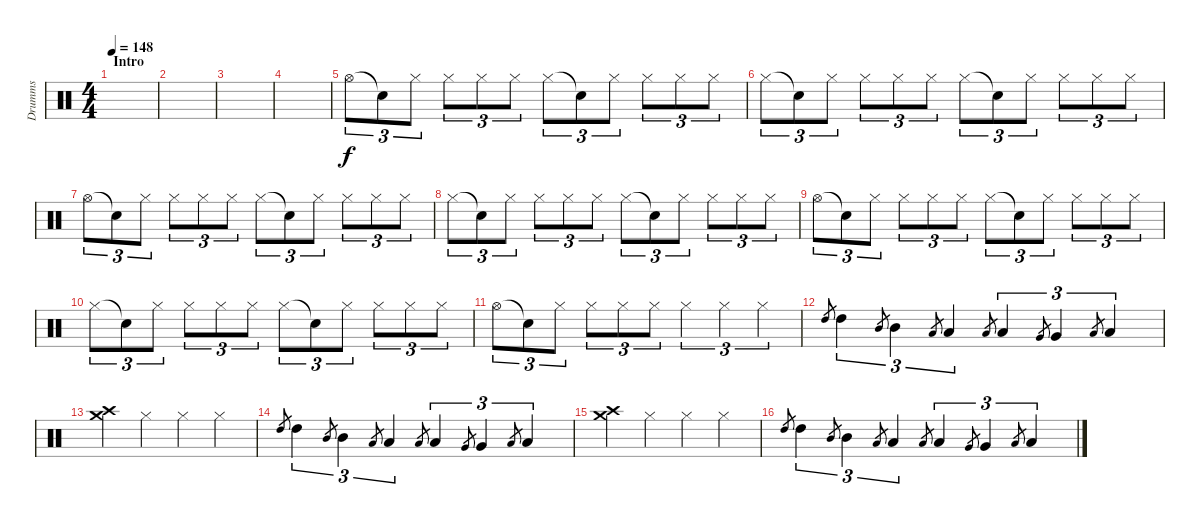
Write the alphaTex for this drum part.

\track ("Drumms" "Drumms") {instrument percussion}
\staff {score}
\articulation defaults
\ts (4 4)
\section ("" "Intro")
\tempo 148
\clef neutral
\ks c
|
|
|
|
"Hi-Hat (open)".8{tu (3 2)} "Snare (hit)"{t}.8{tu (3 2)} "Hi-Hat (closed)".8{tu (3 2)} "Hi-Hat (closed)".8{tu (3 2)} "Hi-Hat (closed)".8{tu (3 2)} "Hi-Hat (closed)".8{tu (3 2)} "Hi-Hat (closed)".8{tu (3 2)} "Snare (hit)"{t}.8{tu (3 2)} "Hi-Hat (closed)".8{tu (3 2)} "Hi-Hat (closed)".8{tu (3 2)} "Hi-Hat (closed)".8{tu (3 2)} "Hi-Hat (closed)".8{tu (3 2)} |
"Hi-Hat (closed)".8{tu (3 2)} "Snare (hit)"{t}.8{tu (3 2)} "Hi-Hat (closed)".8{tu (3 2)} "Hi-Hat (closed)".8{tu (3 2)} "Hi-Hat (closed)".8{tu (3 2)} "Hi-Hat (closed)".8{tu (3 2)} "Hi-Hat (closed)".8{tu (3 2)} "Snare (hit)"{t}.8{tu (3 2)} "Hi-Hat (closed)".8{tu (3 2)} "Hi-Hat (closed)".8{tu (3 2)} "Hi-Hat (closed)".8{tu (3 2)} "Hi-Hat (closed)".8{tu (3 2)} |
"Hi-Hat (open)".8{tu (3 2)} "Snare (hit)"{t}.8{tu (3 2)} "Hi-Hat (closed)".8{tu (3 2)} "Hi-Hat (closed)".8{tu (3 2)} "Hi-Hat (closed)".8{tu (3 2)} "Hi-Hat (closed)".8{tu (3 2)} "Hi-Hat (closed)".8{tu (3 2)} "Snare (hit)"{t}.8{tu (3 2)} "Hi-Hat (closed)".8{tu (3 2)} "Hi-Hat (closed)".8{tu (3 2)} "Hi-Hat (closed)".8{tu (3 2)} "Hi-Hat (closed)".8{tu (3 2)} |
"Hi-Hat (closed)".8{tu (3 2)} "Snare (hit)"{t}.8{tu (3 2)} "Hi-Hat (closed)".8{tu (3 2)} "Hi-Hat (closed)".8{tu (3 2)} "Hi-Hat (closed)".8{tu (3 2)} "Hi-Hat (closed)".8{tu (3 2)} "Hi-Hat (closed)".8{tu (3 2)} "Snare (hit)"{t}.8{tu (3 2)} "Hi-Hat (closed)".8{tu (3 2)} "Hi-Hat (closed)".8{tu (3 2)} "Hi-Hat (closed)".8{tu (3 2)} "Hi-Hat (closed)".8{tu (3 2)} |
"Hi-Hat (open)".8{tu (3 2)} "Snare (hit)"{t}.8{tu (3 2)} "Hi-Hat (closed)".8{tu (3 2)} "Hi-Hat (closed)".8{tu (3 2)} "Hi-Hat (closed)".8{tu (3 2)} "Hi-Hat (closed)".8{tu (3 2)} "Hi-Hat (closed)".8{tu (3 2)} "Snare (hit)"{t}.8{tu (3 2)} "Hi-Hat (closed)".8{tu (3 2)} "Hi-Hat (closed)".8{tu (3 2)} "Hi-Hat (closed)".8{tu (3 2)} "Hi-Hat (closed)".8{tu (3 2)} |
"Hi-Hat (closed)".8{tu (3 2)} "Snare (hit)"{t}.8{tu (3 2)} "Hi-Hat (closed)".8{tu (3 2)} "Hi-Hat (closed)".8{tu (3 2)} "Hi-Hat (closed)".8{tu (3 2)} "Hi-Hat (closed)".8{tu (3 2)} "Hi-Hat (closed)".8{tu (3 2)} "Snare (hit)"{t}.8{tu (3 2)} "Hi-Hat (closed)".8{tu (3 2)} "Hi-Hat (closed)".8{tu (3 2)} "Hi-Hat (closed)".8{tu (3 2)} "Hi-Hat (closed)".8{tu (3 2)} |
"Hi-Hat (open)".8{tu (3 2)} "Snare (hit)"{t}.8{tu (3 2)} "Hi-Hat (closed)".8{tu (3 2)} "Hi-Hat (closed)".8{tu (3 2)} "Hi-Hat (closed)".8{tu (3 2)} "Hi-Hat (closed)".8{tu (3 2)} "Hi-Hat (closed)".4{tu (3 2)} "Hi-Hat (closed)".4{tu (3 2)} "Hi-Hat (closed)".4{tu (3 2)} |
"High Tom (hit)".8{gr} "High Tom (hit)".4{tu (3 2)} "Mid Tom (hit)".8{gr} "Mid Tom (hit)".4{tu (3 2)} "Low Tom (hit)".8{gr} "Low Tom (hit)".4{tu (3 2)} "Low Tom (hit)".8{gr} "Low Tom (hit)".4{tu (3 2)} "Very Low Tom (hit)".8{gr} "Very Low Tom (hit)".4{tu (3 2)} "Low Floor Tom (hit)".8{gr} "Low Floor Tom (hit)".4{tu (3 2)} |
("Crash medium (hit)" "Crash high (hit)").4 "Hi-Hat (closed)".4 "Hi-Hat (closed)".4 "Hi-Hat (closed)".4 |
"High Tom (hit)".8{gr} "High Tom (hit)".4{tu (3 2)} "Mid Tom (hit)".8{gr} "Mid Tom (hit)".4{tu (3 2)} "Low Tom (hit)".8{gr} "Low Tom (hit)".4{tu (3 2)} "Low Tom (hit)".8{gr} "Low Tom (hit)".4{tu (3 2)} "Very Low Tom (hit)".8{gr} "Very Low Tom (hit)".4{tu (3 2)} "Low Floor Tom (hit)".8{gr} "Low Floor Tom (hit)".4{tu (3 2)} |
("Crash medium (hit)" "Crash high (hit)").4 "Hi-Hat (closed)".4 "Hi-Hat (closed)".4 "Hi-Hat (closed)".4 |
"High Tom (hit)".8{gr} "High Tom (hit)".4{tu (3 2)} "Mid Tom (hit)".8{gr} "Mid Tom (hit)".4{tu (3 2)} "Low Tom (hit)".8{gr} "Low Tom (hit)".4{tu (3 2)} "Low Tom (hit)".8{gr} "Low Tom (hit)".4{tu (3 2)} "Very Low Tom (hit)".8{gr} "Very Low Tom (hit)".4{tu (3 2)} "Low Floor Tom (hit)".8{gr} "Low Floor Tom (hit)".4{tu (3 2)}
